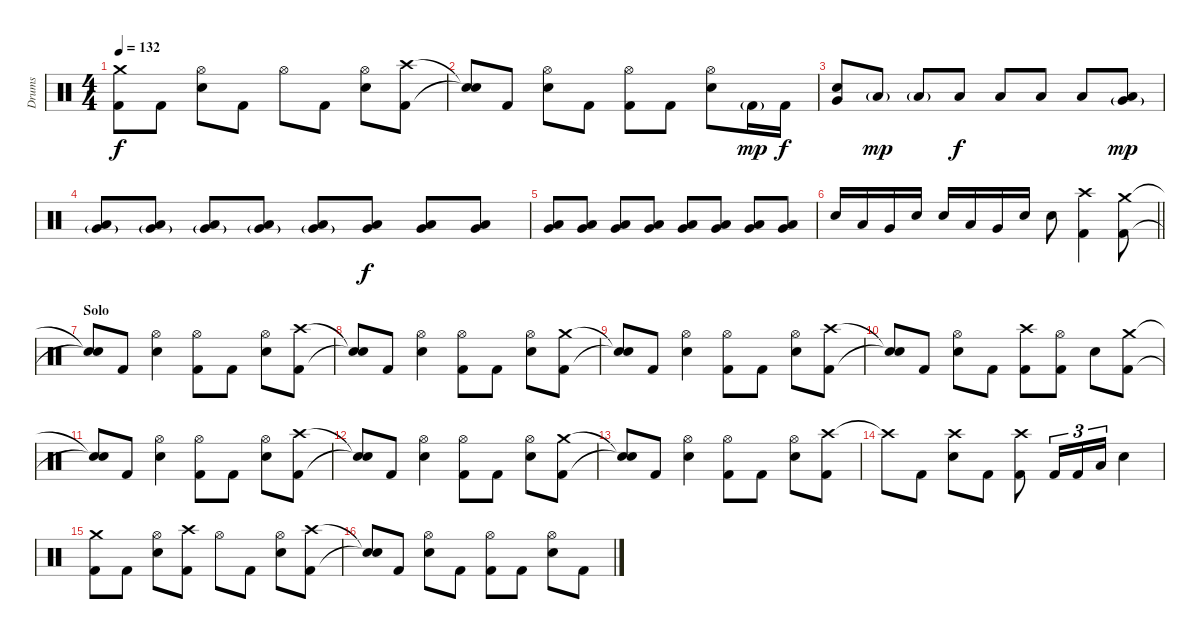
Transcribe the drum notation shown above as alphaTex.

\track ("Drums" "Drums") {instrument percussion}
\staff {score}
\articulation defaults
\ts (4 4)
\tempo 132
\clef neutral
\ks c
("Crash medium (hit)" "Kick (hit) 2").8{dy f} "Kick (hit) 2".8 ("Hi-Hat (open)" "Electric Snare (hit)").8 "Kick (hit) 2".8 "Hi-Hat (open)".8 "Kick (hit) 2".8 ("Hi-Hat (open)" "Electric Snare (hit)").8 ("Crash high (hit)" "Kick (hit) 2").8 |
("Snare (hit)"{t} "Snare (hit)"{t}).8 "Kick (hit) 2".8 ("Hi-Hat (open)" "Electric Snare (hit)").8 "Kick (hit) 2".8 ("Hi-Hat (open)" "Kick (hit) 2").8 "Kick (hit) 2".8 ("Hi-Hat (open)" "Electric Snare (hit)").8 "Kick (hit) 2"{g}.16{dy mp} "Kick (hit) 2".16{dy f} |
("Very Low Tom (hit)" "Electric Snare (hit)").8 "Low Floor Tom (hit)"{g}.8{dy mp} "Low Floor Tom (hit)"{g}.8 "Low Floor Tom (hit)".8{dy f} "Low Floor Tom (hit)".8 "Low Floor Tom (hit)".8 "Low Floor Tom (hit)".8 ("Very Low Tom (hit)"{g} "Low Floor Tom (hit)").8{dy mp} |
("Very Low Tom (hit)"{g} "Low Floor Tom (hit)").8 ("Very Low Tom (hit)"{g} "Low Floor Tom (hit)").8 ("Very Low Tom (hit)"{g} "Low Floor Tom (hit)").8 ("Very Low Tom (hit)"{g} "Low Floor Tom (hit)").8 ("Very Low Tom (hit)"{g} "Low Floor Tom (hit)").8 ("Very Low Tom (hit)" "Low Floor Tom (hit)").8{dy f} ("Very Low Tom (hit)" "Low Floor Tom (hit)").8 ("Very Low Tom (hit)" "Low Floor Tom (hit)").8 |
("Very Low Tom (hit)" "Low Floor Tom (hit)").8 ("Low Tom (hit)" "Very Low Tom (hit)").8 ("Low Tom (hit)" "Very Low Tom (hit)").8 ("Low Tom (hit)" "Very Low Tom (hit)").8 ("Low Tom (hit)" "Very Low Tom (hit)").8 ("Low Tom (hit)" "Very Low Tom (hit)").8 ("Low Tom (hit)" "Very Low Tom (hit)").8 ("Low Tom (hit)" "Very Low Tom (hit)").8 |
\barLineRight lightlight "Electric Snare (hit)".16 "Low Tom (hit)".16 "Very Low Tom (hit)".16 "Electric Snare (hit)".16 "Electric Snare (hit)".16 "Low Tom (hit)".16 "Very Low Tom (hit)".16 "Electric Snare (hit)".16 "Electric Snare (hit)".8
("Crash high (hit)" "Kick (hit) 2").4 ("Crash medium (hit)" "Kick (hit) 2").8 |
\section ("" "Solo")
("Snare (hit)"{t} "Snare (hit)"{t}).8 "Kick (hit) 2".8 ("Hi-Hat (open)" "Electric Snare (hit)").4 ("Hi-Hat (open)" "Kick (hit) 2").8 "Kick (hit) 2".8 ("Hi-Hat (open)" "Electric Snare (hit)").8 ("Crash high (hit)" "Kick (hit) 2").8 |
("Snare (hit)"{t} "Snare (hit)"{t}).8 "Kick (hit) 2".8 ("Hi-Hat (open)" "Electric Snare (hit)").4 ("Hi-Hat (open)" "Kick (hit) 2").8 "Kick (hit) 2".8 ("Hi-Hat (open)" "Electric Snare (hit)").8 ("Crash medium (hit)" "Kick (hit) 2").8 |
("Snare (hit)"{t} "Snare (hit)"{t}).8 "Kick (hit) 2".8 ("Hi-Hat (open)" "Electric Snare (hit)").4 ("Hi-Hat (open)" "Kick (hit) 2").8 "Kick (hit) 2".8 ("Hi-Hat (open)" "Electric Snare (hit)").8 ("Crash high (hit)" "Kick (hit) 2").8 |
("Snare (hit)"{t} "Snare (hit)"{t}).8 "Kick (hit) 2".8 ("Hi-Hat (open)" "Electric Snare (hit)").8 "Kick (hit) 2".8 ("Crash high (hit)" "Kick (hit) 2").8 ("Hi-Hat (open)" "Kick (hit) 2").8 "Electric Snare (hit)".8 ("Crash medium (hit)" "Kick (hit) 2").8 |
("Snare (hit)"{t} "Snare (hit)"{t}).8 "Kick (hit) 2".8 ("Hi-Hat (open)" "Electric Snare (hit)").4 ("Hi-Hat (open)" "Kick (hit) 2").8 "Kick (hit) 2".8 ("Hi-Hat (open)" "Electric Snare (hit)").8 ("Crash high (hit)" "Kick (hit) 2").8 |
("Snare (hit)"{t} "Snare (hit)"{t}).8 "Kick (hit) 2".8 ("Hi-Hat (open)" "Electric Snare (hit)").4 ("Hi-Hat (open)" "Kick (hit) 2").8 "Kick (hit) 2".8 ("Hi-Hat (open)" "Electric Snare (hit)").8 ("Crash medium (hit)" "Kick (hit) 2").8 |
("Snare (hit)"{t} "Snare (hit)"{t}).8 "Kick (hit) 2".8 ("Hi-Hat (open)" "Electric Snare (hit)").4 ("Hi-Hat (open)" "Kick (hit) 2").8 "Kick (hit) 2".8 ("Hi-Hat (open)" "Electric Snare (hit)").8 ("Crash high (hit)" "Kick (hit) 2").8 |
"Crash high (hit)"{t}.8 "Kick (hit) 2".8 ("Crash high (hit)" "Electric Snare (hit)").8 "Kick (hit) 2".8 ("Crash high (hit)" "Kick (hit) 2").8 "Kick (hit) 2".16{tu (3 2)} "Kick (hit) 2".16{tu (3 2)} "Low Tom (hit)".16{tu (3 2)} "Electric Snare (hit)".4 |
("Crash medium (hit)" "Kick (hit) 2").8 "Kick (hit) 2".8 ("Hi-Hat (open)" "Electric Snare (hit)").8 ("Crash high (hit)" "Kick (hit) 2").8 "Hi-Hat (open)".8 "Kick (hit) 2".8 ("Hi-Hat (open)" "Electric Snare (hit)").8 ("Crash high (hit)" "Kick (hit) 2").8 |
("Snare (hit)"{t} "Snare (hit)"{t}).8 "Kick (hit) 2".8 ("Hi-Hat (open)" "Electric Snare (hit)").8 "Kick (hit) 2".8 ("Hi-Hat (open)" "Kick (hit) 2").8 "Kick (hit) 2".8 ("Hi-Hat (open)" "Electric Snare (hit)").8 "Kick (hit) 2".8
